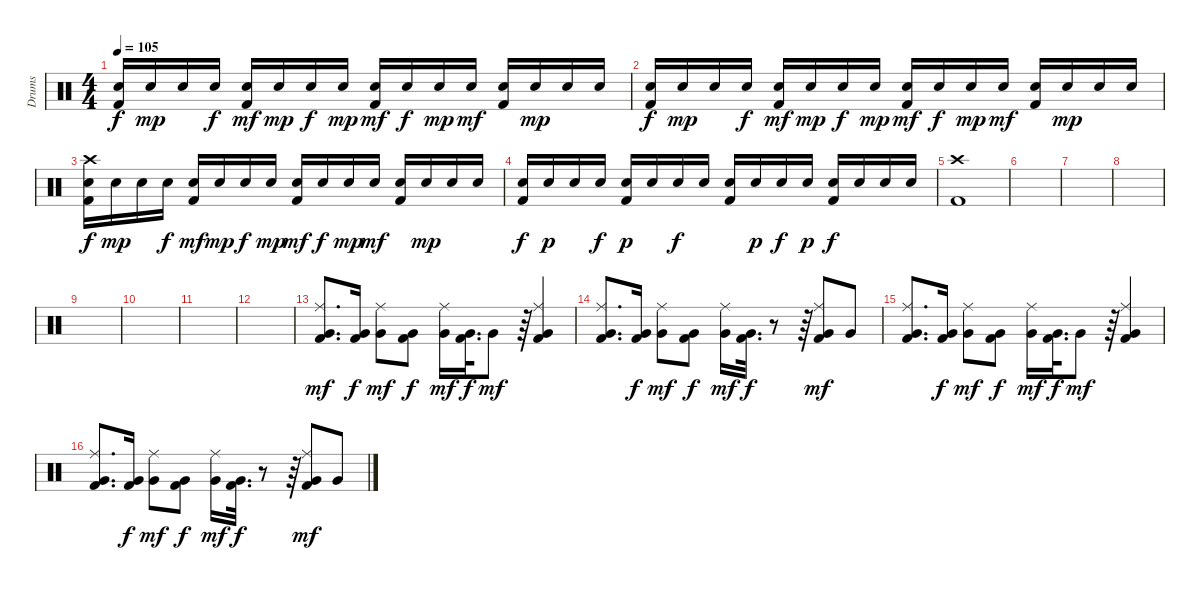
\track ("Drums" "Drums") {instrument percussion}
\staff {score}
\articulation defaults
\ts (4 4)
\tempo 105
\clef neutral
\ks c
("Snare (hit) 2" "Kick (hit) 2").16{dy f} "Snare (hit) 2".16{dy mp} "Snare (hit) 2".16 "Snare (hit) 2".16{dy f} ("Snare (hit) 2" "Kick (hit) 2").16{dy mf} "Snare (hit) 2".16{dy mp} "Snare (hit) 2".16{dy f} "Snare (hit) 2".16{dy mp} ("Snare (hit) 2" "Kick (hit) 2").16{dy mf} "Snare (hit) 2".16{dy f} "Snare (hit) 2".16{dy mp} "Snare (hit) 2".16{dy mf} ("Snare (hit) 2" "Kick (hit) 2").16 "Snare (hit) 2".16{dy mp} "Snare (hit) 2".16 "Snare (hit) 2".16 |
("Snare (hit) 2" "Kick (hit) 2").16{dy f} "Snare (hit) 2".16{dy mp} "Snare (hit) 2".16 "Snare (hit) 2".16{dy f} ("Snare (hit) 2" "Kick (hit) 2").16{dy mf} "Snare (hit) 2".16{dy mp} "Snare (hit) 2".16{dy f} "Snare (hit) 2".16{dy mp} ("Snare (hit) 2" "Kick (hit) 2").16{dy mf} "Snare (hit) 2".16{dy f} "Snare (hit) 2".16{dy mp} "Snare (hit) 2".16{dy mf} ("Snare (hit) 2" "Kick (hit) 2").16 "Snare (hit) 2".16{dy mp} "Snare (hit) 2".16 "Snare (hit) 2".16 |
("Crash high (hit)" "Snare (hit) 2" "Kick (hit) 2").16{dy f} "Snare (hit) 2".16{dy mp} "Snare (hit) 2".16 "Snare (hit) 2".16{dy f} ("Snare (hit) 2" "Kick (hit) 2").16{dy mf} "Snare (hit) 2".16{dy mp} "Snare (hit) 2".16{dy f} "Snare (hit) 2".16{dy mp} ("Snare (hit) 2" "Kick (hit) 2").16{dy mf} "Snare (hit) 2".16{dy f} "Snare (hit) 2".16{dy mp} "Snare (hit) 2".16{dy mf} ("Snare (hit) 2" "Kick (hit) 2").16 "Snare (hit) 2".16{dy mp} "Snare (hit) 2".16 "Snare (hit) 2".16 |
("Snare (hit) 2" "Kick (hit) 2").16{dy f} "Snare (hit) 2".16{dy p} "Snare (hit) 2".16 "Snare (hit) 2".16{dy f} ("Snare (hit) 2" "Kick (hit) 2").16{dy p} "Snare (hit) 2".16 "Snare (hit) 2".16{dy f} "Snare (hit) 2".16 ("Snare (hit) 2" "Kick (hit) 2").16 "Snare (hit) 2".16{dy p} "Snare (hit) 2".16{dy f} "Snare (hit) 2".16{dy p} ("Snare (hit) 2" "Kick (hit) 2").16{dy f} "Snare (hit) 2".16 "Snare (hit) 2".16 "Snare (hit) 2".16 |
("Crash high (hit)" "Kick (hit) 2").1 |
|
|
|
|
|
|
|
("Ride (middle)" "Very Low Tom (hit)" "Kick (hit) 2").8{d dy mf} ("Very Low Tom (hit)" "Kick (hit) 2").16{dy f} ("Ride (middle)" "Very Low Tom (hit)").8{dy mf} ("Very Low Tom (hit)" "Kick (hit) 2").8{dy f} ("Ride (middle)" "Very Low Tom (hit)").16{dy mf} ("Very Low Tom (hit)" "Kick (hit) 2").32{d dy f} "Very Low Tom (hit)".8{dy mf} r.64 ("Ride (middle)" "Very Low Tom (hit)" "Kick (hit) 2").4 |
("Ride (middle)" "Very Low Tom (hit)" "Kick (hit) 2").8{d} ("Very Low Tom (hit)" "Kick (hit) 2").16{dy f} ("Ride (middle)" "Very Low Tom (hit)").8{dy mf} ("Very Low Tom (hit)" "Kick (hit) 2").8{dy f} ("Ride (middle)" "Very Low Tom (hit)").16{dy mf} ("Very Low Tom (hit)" "Kick (hit) 2").32{d dy f} r.8 r.64 ("Ride (middle)" "Very Low Tom (hit)" "Kick (hit) 2").8{dy mf} "Very Low Tom (hit)".8 |
("Ride (middle)" "Very Low Tom (hit)" "Kick (hit) 2").8{d} ("Very Low Tom (hit)" "Kick (hit) 2").16{dy f} ("Ride (middle)" "Very Low Tom (hit)").8{dy mf} ("Very Low Tom (hit)" "Kick (hit) 2").8{dy f} ("Ride (middle)" "Very Low Tom (hit)").16{dy mf} ("Very Low Tom (hit)" "Kick (hit) 2").32{d dy f} "Very Low Tom (hit)".8{dy mf} r.64 ("Ride (middle)" "Very Low Tom (hit)" "Kick (hit) 2").4 |
("Ride (middle)" "Very Low Tom (hit)" "Kick (hit) 2").8{d} ("Very Low Tom (hit)" "Kick (hit) 2").16{dy f} ("Ride (middle)" "Very Low Tom (hit)").8{dy mf} ("Very Low Tom (hit)" "Kick (hit) 2").8{dy f} ("Ride (middle)" "Very Low Tom (hit)").16{dy mf} ("Very Low Tom (hit)" "Kick (hit) 2").32{d dy f} r.8 r.64 ("Ride (middle)" "Very Low Tom (hit)" "Kick (hit) 2").8{dy mf} "Very Low Tom (hit)".8
